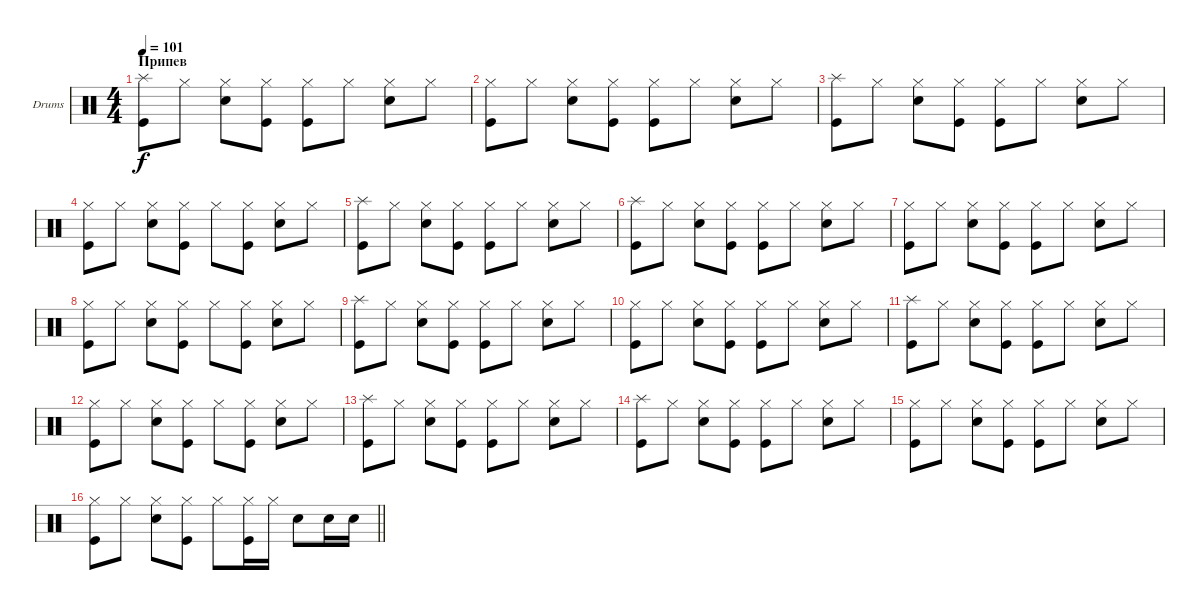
\bracketExtendMode groupsimilarinstruments
\firstSystemTrackNameOrientation horizontal
\otherSystemsTrackNameOrientation horizontal
\track ("Г.Гурьянов (ударные)" "Drums") {instrument percussion}
\staff {score}
\articulation defaults
\ts (4 4)
\section ("" "Припев")
\tempo 101
\clef neutral
\ks c
("Splash (hit)" "Kick (hit)").8{dy f} "Hi-Hat (closed)".8 ("Hi-Hat (closed)" "Snare (hit) 2").8 ("Hi-Hat (closed)" "Kick (hit)").8 ("Hi-Hat (closed)" "Kick (hit)").8 "Hi-Hat (closed)".8 ("Hi-Hat (closed)" "Snare (hit) 2").8 "Hi-Hat (closed)".8 |
("Hi-Hat (closed)" "Kick (hit)").8 "Hi-Hat (closed)".8 ("Hi-Hat (closed)" "Snare (hit) 2").8 ("Hi-Hat (closed)" "Kick (hit)").8 ("Hi-Hat (closed)" "Kick (hit)").8 "Hi-Hat (closed)".8 ("Hi-Hat (closed)" "Snare (hit) 2").8 "Hi-Hat (closed)".8 |
("Splash (hit)" "Kick (hit)").8 "Hi-Hat (closed)".8 ("Hi-Hat (closed)" "Snare (hit) 2").8 ("Hi-Hat (closed)" "Kick (hit)").8 ("Hi-Hat (closed)" "Kick (hit)").8 "Hi-Hat (closed)".8 ("Hi-Hat (closed)" "Snare (hit) 2").8 "Hi-Hat (closed)".8 |
("Hi-Hat (closed)" "Kick (hit)").8 "Hi-Hat (closed)".8 ("Hi-Hat (closed)" "Snare (hit) 2").8 ("Hi-Hat (closed)" "Kick (hit)").8 "Hi-Hat (closed)".8 ("Hi-Hat (closed)" "Kick (hit)").8 ("Hi-Hat (closed)" "Snare (hit) 2").8 "Hi-Hat (closed)".8 |
("Splash (hit)" "Kick (hit)").8 "Hi-Hat (closed)".8 ("Hi-Hat (closed)" "Snare (hit) 2").8 ("Hi-Hat (closed)" "Kick (hit)").8 ("Hi-Hat (closed)" "Kick (hit)").8 "Hi-Hat (closed)".8 ("Hi-Hat (closed)" "Snare (hit) 2").8 "Hi-Hat (closed)".8 |
("Splash (hit)" "Kick (hit)").8 "Hi-Hat (closed)".8 ("Hi-Hat (closed)" "Snare (hit) 2").8 ("Hi-Hat (closed)" "Kick (hit)").8 ("Hi-Hat (closed)" "Kick (hit)").8 "Hi-Hat (closed)".8 ("Hi-Hat (closed)" "Snare (hit) 2").8 "Hi-Hat (closed)".8 |
("Hi-Hat (closed)" "Kick (hit)").8 "Hi-Hat (closed)".8 ("Hi-Hat (closed)" "Snare (hit) 2").8 ("Hi-Hat (closed)" "Kick (hit)").8 ("Hi-Hat (closed)" "Kick (hit)").8 "Hi-Hat (closed)".8 ("Hi-Hat (closed)" "Snare (hit) 2").8 "Hi-Hat (closed)".8 |
("Hi-Hat (closed)" "Kick (hit)").8 "Hi-Hat (closed)".8 ("Hi-Hat (closed)" "Snare (hit) 2").8 ("Hi-Hat (closed)" "Kick (hit)").8 "Hi-Hat (closed)".8 ("Hi-Hat (closed)" "Kick (hit)").8 ("Hi-Hat (closed)" "Snare (hit) 2").8 "Hi-Hat (closed)".8 |
("Splash (hit)" "Kick (hit)").8 "Hi-Hat (closed)".8 ("Hi-Hat (closed)" "Snare (hit) 2").8 ("Hi-Hat (closed)" "Kick (hit)").8 ("Hi-Hat (closed)" "Kick (hit)").8 "Hi-Hat (closed)".8 ("Hi-Hat (closed)" "Snare (hit) 2").8 "Hi-Hat (closed)".8 |
("Hi-Hat (closed)" "Kick (hit)").8 "Hi-Hat (closed)".8 ("Hi-Hat (closed)" "Snare (hit) 2").8 ("Hi-Hat (closed)" "Kick (hit)").8 ("Hi-Hat (closed)" "Kick (hit)").8 "Hi-Hat (closed)".8 ("Hi-Hat (closed)" "Snare (hit) 2").8 "Hi-Hat (closed)".8 |
("Splash (hit)" "Kick (hit)").8 "Hi-Hat (closed)".8 ("Hi-Hat (closed)" "Snare (hit) 2").8 ("Hi-Hat (closed)" "Kick (hit)").8 ("Hi-Hat (closed)" "Kick (hit)").8 "Hi-Hat (closed)".8 ("Hi-Hat (closed)" "Snare (hit) 2").8 "Hi-Hat (closed)".8 |
("Hi-Hat (closed)" "Kick (hit)").8 "Hi-Hat (closed)".8 ("Hi-Hat (closed)" "Snare (hit) 2").8 ("Hi-Hat (closed)" "Kick (hit)").8 "Hi-Hat (closed)".8 ("Hi-Hat (closed)" "Kick (hit)").8 ("Hi-Hat (closed)" "Snare (hit) 2").8 "Hi-Hat (closed)".8 |
("Splash (hit)" "Kick (hit)").8 "Hi-Hat (closed)".8 ("Hi-Hat (closed)" "Snare (hit) 2").8 ("Hi-Hat (closed)" "Kick (hit)").8 ("Hi-Hat (closed)" "Kick (hit)").8 "Hi-Hat (closed)".8 ("Hi-Hat (closed)" "Snare (hit) 2").8 "Hi-Hat (closed)".8 |
("Splash (hit)" "Kick (hit)").8 "Hi-Hat (closed)".8 ("Hi-Hat (closed)" "Snare (hit) 2").8 ("Hi-Hat (closed)" "Kick (hit)").8 ("Hi-Hat (closed)" "Kick (hit)").8 "Hi-Hat (closed)".8 ("Hi-Hat (closed)" "Snare (hit) 2").8 "Hi-Hat (closed)".8 |
("Hi-Hat (closed)" "Kick (hit)").8 "Hi-Hat (closed)".8 ("Hi-Hat (closed)" "Snare (hit) 2").8 ("Hi-Hat (closed)" "Kick (hit)").8 ("Hi-Hat (closed)" "Kick (hit)").8 "Hi-Hat (closed)".8 ("Hi-Hat (closed)" "Snare (hit) 2").8 "Hi-Hat (closed)".8 |
\barLineRight lightlight
("Hi-Hat (closed)" "Kick (hit)").8 "Hi-Hat (closed)".8 ("Hi-Hat (closed)" "Snare (hit) 2").8 ("Hi-Hat (closed)" "Kick (hit)").8 "Hi-Hat (closed)".8 ("Hi-Hat (closed)" "Kick (hit)").16 "Hi-Hat (closed)".16 "Snare (hit) 2".8 "Snare (hit) 2".16 "Snare (hit) 2".16
